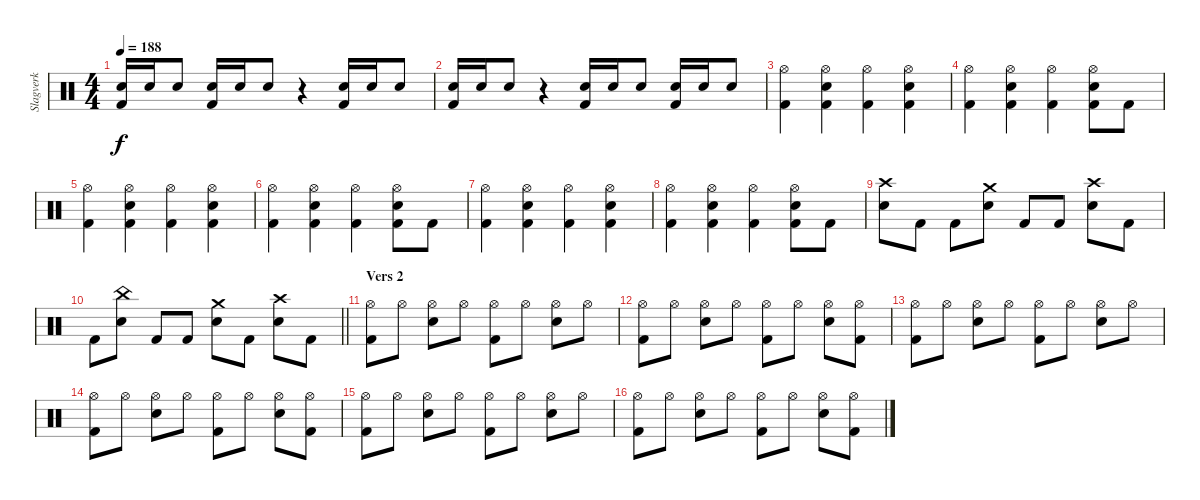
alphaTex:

\track ("Slagverk" "Slagverk") {instrument percussion}
\staff {score}
\articulation defaults
\ts (4 4)
\tempo 188
\clef neutral
\ks c
("Electric Snare (hit)" "Kick (hit) 2").16{dy f} "Electric Snare (hit)".16 "Electric Snare (hit)".8 ("Electric Snare (hit)" "Kick (hit) 2").16 "Electric Snare (hit)".16 "Electric Snare (hit)".8 r.4 ("Electric Snare (hit)" "Kick (hit) 2").16 "Electric Snare (hit)".16 "Electric Snare (hit)".8 |
("Electric Snare (hit)" "Kick (hit) 2").16 "Electric Snare (hit)".16 "Electric Snare (hit)".8 r.4 ("Electric Snare (hit)" "Kick (hit) 2").16 "Electric Snare (hit)".16 "Electric Snare (hit)".8 ("Electric Snare (hit)" "Kick (hit) 2").16 "Electric Snare (hit)".16 "Electric Snare (hit)".8 |
("Hi-Hat (open)" "Kick (hit) 2").4 ("Hi-Hat (open)" "Electric Snare (hit)" "Kick (hit) 2").4 ("Hi-Hat (open)" "Kick (hit) 2").4 ("Hi-Hat (open)" "Electric Snare (hit)" "Kick (hit) 2").4 |
("Hi-Hat (open)" "Kick (hit) 2").4 ("Hi-Hat (open)" "Electric Snare (hit)" "Kick (hit) 2").4 ("Hi-Hat (open)" "Kick (hit) 2").4 ("Hi-Hat (open)" "Electric Snare (hit)" "Kick (hit) 2").8 "Kick (hit) 2".8 |
("Hi-Hat (open)" "Kick (hit) 2").4 ("Hi-Hat (open)" "Electric Snare (hit)" "Kick (hit) 2").4 ("Hi-Hat (open)" "Kick (hit) 2").4 ("Hi-Hat (open)" "Electric Snare (hit)" "Kick (hit) 2").4 |
("Hi-Hat (open)" "Kick (hit) 2").4 ("Hi-Hat (open)" "Electric Snare (hit)" "Kick (hit) 2").4 ("Hi-Hat (open)" "Kick (hit) 2").4 ("Hi-Hat (open)" "Electric Snare (hit)" "Kick (hit) 2").8 "Kick (hit) 2".8 |
("Hi-Hat (open)" "Kick (hit) 2").4 ("Hi-Hat (open)" "Electric Snare (hit)" "Kick (hit) 2").4 ("Hi-Hat (open)" "Kick (hit) 2").4 ("Hi-Hat (open)" "Electric Snare (hit)" "Kick (hit) 2").4 |
("Hi-Hat (open)" "Kick (hit) 2").4 ("Hi-Hat (open)" "Electric Snare (hit)" "Kick (hit) 2").4 ("Hi-Hat (open)" "Kick (hit) 2").4 ("Hi-Hat (open)" "Electric Snare (hit)" "Kick (hit) 2").8 "Kick (hit) 2".8 |
("Crash high (hit)" "Electric Snare (hit)").8 "Kick (hit) 2".8 "Kick (hit) 2".8 ("Crash medium (hit)" "Electric Snare (hit)").8 "Kick (hit) 2".8 "Kick (hit) 2".8 ("Crash high (hit)" "Electric Snare (hit)").8 "Kick (hit) 2".8 |
\barLineRight lightlight "Kick (hit) 2".8
("China (hit)" "Electric Snare (hit)").8 "Kick (hit) 2".8 "Kick (hit) 2".8 ("Crash medium (hit)" "Electric Snare (hit)").8 "Kick (hit) 2".8 ("Crash high (hit)" "Electric Snare (hit)").8 "Kick (hit) 2".8 |
\section ("" "Vers 2")
("Hi-Hat (open)" "Kick (hit) 2").8 "Hi-Hat (open)".8 ("Hi-Hat (open)" "Electric Snare (hit)").8 "Hi-Hat (open)".8 ("Hi-Hat (open)" "Kick (hit) 2").8 "Hi-Hat (open)".8 ("Hi-Hat (open)" "Electric Snare (hit)").8 "Hi-Hat (open)".8 |
("Hi-Hat (open)" "Kick (hit) 2").8 "Hi-Hat (open)".8 ("Hi-Hat (open)" "Electric Snare (hit)").8 "Hi-Hat (open)".8 ("Hi-Hat (open)" "Kick (hit) 2").8 "Hi-Hat (open)".8 ("Hi-Hat (open)" "Electric Snare (hit)").8 ("Hi-Hat (open)" "Kick (hit) 2").8 |
("Hi-Hat (open)" "Kick (hit) 2").8 "Hi-Hat (open)".8 ("Hi-Hat (open)" "Electric Snare (hit)").8 "Hi-Hat (open)".8 ("Hi-Hat (open)" "Kick (hit) 2").8 "Hi-Hat (open)".8 ("Hi-Hat (open)" "Electric Snare (hit)").8 "Hi-Hat (open)".8 |
("Hi-Hat (open)" "Kick (hit) 2").8 "Hi-Hat (open)".8 ("Hi-Hat (open)" "Electric Snare (hit)").8 "Hi-Hat (open)".8 ("Hi-Hat (open)" "Kick (hit) 2").8 "Hi-Hat (open)".8 ("Hi-Hat (open)" "Electric Snare (hit)").8 ("Hi-Hat (open)" "Kick (hit) 2").8 |
("Hi-Hat (open)" "Kick (hit) 2").8 "Hi-Hat (open)".8 ("Hi-Hat (open)" "Electric Snare (hit)").8 "Hi-Hat (open)".8 ("Hi-Hat (open)" "Kick (hit) 2").8 "Hi-Hat (open)".8 ("Hi-Hat (open)" "Electric Snare (hit)").8 "Hi-Hat (open)".8 |
("Hi-Hat (open)" "Kick (hit) 2").8 "Hi-Hat (open)".8 ("Hi-Hat (open)" "Electric Snare (hit)").8 "Hi-Hat (open)".8 ("Hi-Hat (open)" "Kick (hit) 2").8 "Hi-Hat (open)".8 ("Hi-Hat (open)" "Electric Snare (hit)").8 ("Hi-Hat (open)" "Kick (hit) 2").8
